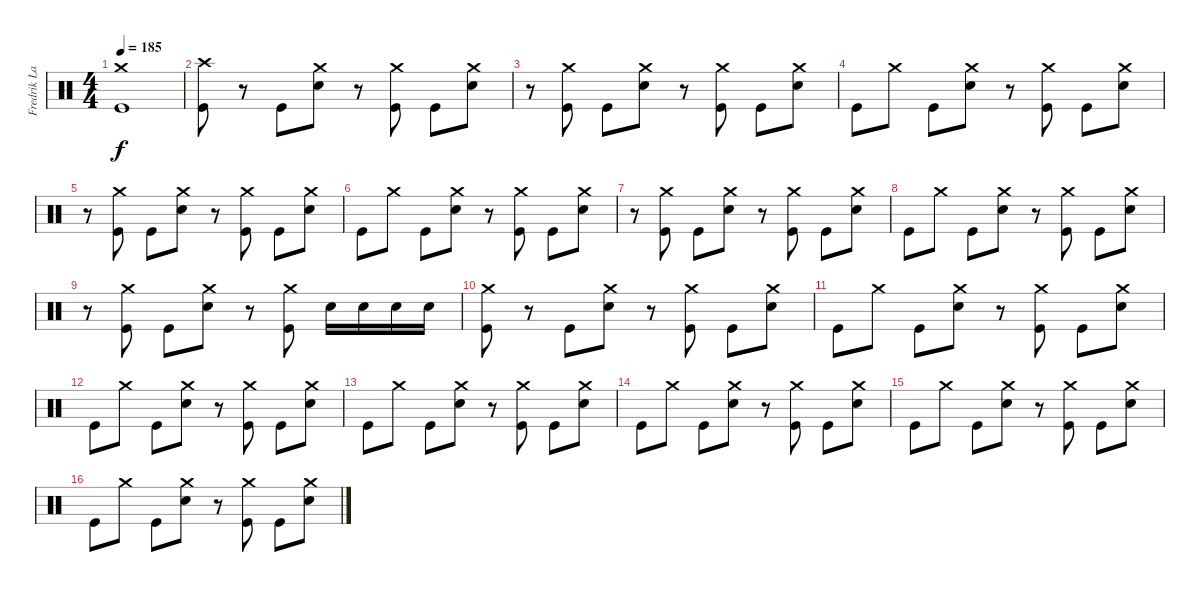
\track ("Fredrik Larzon" "Fredrik La") {instrument percussion}
\staff {score}
\articulation defaults
\ts (4 4)
\tempo 185
\clef neutral
\ks c
("Crash medium (hit)" "Kick (hit)").1{dy f} |
("Crash high (hit)" "Kick (hit)").8 r.8 "Kick (hit)".8 ("Crash medium (hit)" "Electric Snare (hit)").8 r.8 ("Crash medium (hit)" "Kick (hit)").8 "Kick (hit)".8 ("Crash medium (hit)" "Electric Snare (hit)").8 |
r.8 ("Crash medium (hit)" "Kick (hit)").8 "Kick (hit)".8 ("Crash medium (hit)" "Electric Snare (hit)").8 r.8 ("Crash medium (hit)" "Kick (hit)").8 "Kick (hit)".8 ("Crash medium (hit)" "Electric Snare (hit)").8 |
"Kick (hit)".8 "Crash medium (hit)".8 "Kick (hit)".8 ("Crash medium (hit)" "Electric Snare (hit)").8 r.8 ("Crash medium (hit)" "Kick (hit)").8 "Kick (hit)".8 ("Crash medium (hit)" "Electric Snare (hit)").8 |
r.8 ("Crash medium (hit)" "Kick (hit)").8 "Kick (hit)".8 ("Crash medium (hit)" "Electric Snare (hit)").8 r.8 ("Crash medium (hit)" "Kick (hit)").8 "Kick (hit)".8 ("Crash medium (hit)" "Electric Snare (hit)").8 |
"Kick (hit)".8 "Crash medium (hit)".8 "Kick (hit)".8 ("Crash medium (hit)" "Electric Snare (hit)").8 r.8 ("Crash medium (hit)" "Kick (hit)").8 "Kick (hit)".8 ("Crash medium (hit)" "Electric Snare (hit)").8 |
r.8 ("Crash medium (hit)" "Kick (hit)").8 "Kick (hit)".8 ("Crash medium (hit)" "Electric Snare (hit)").8 r.8 ("Crash medium (hit)" "Kick (hit)").8 "Kick (hit)".8 ("Crash medium (hit)" "Electric Snare (hit)").8 |
"Kick (hit)".8 "Crash medium (hit)".8 "Kick (hit)".8 ("Crash medium (hit)" "Electric Snare (hit)").8 r.8 ("Crash medium (hit)" "Kick (hit)").8 "Kick (hit)".8 ("Crash medium (hit)" "Electric Snare (hit)").8 |
r.8 ("Crash medium (hit)" "Kick (hit)").8 "Kick (hit)".8 ("Crash medium (hit)" "Electric Snare (hit)").8 r.8 ("Crash medium (hit)" "Kick (hit)").8 "Electric Snare (hit)".16 "Electric Snare (hit)".16 "Electric Snare (hit)".16 "Electric Snare (hit)".16 |
("Crash medium (hit)" "Kick (hit)").8 r.8 "Kick (hit)".8 ("Crash medium (hit)" "Electric Snare (hit)").8 r.8 ("Crash medium (hit)" "Kick (hit)").8 "Kick (hit)".8 ("Crash medium (hit)" "Electric Snare (hit)").8 |
"Kick (hit)".8 "Crash medium (hit)".8 "Kick (hit)".8 ("Crash medium (hit)" "Electric Snare (hit)").8 r.8 ("Crash medium (hit)" "Kick (hit)").8 "Kick (hit)".8 ("Crash medium (hit)" "Electric Snare (hit)").8 |
"Kick (hit)".8 "Crash medium (hit)".8 "Kick (hit)".8 ("Crash medium (hit)" "Electric Snare (hit)").8 r.8 ("Crash medium (hit)" "Kick (hit)").8 "Kick (hit)".8 ("Crash medium (hit)" "Electric Snare (hit)").8 |
"Kick (hit)".8 "Crash medium (hit)".8 "Kick (hit)".8 ("Crash medium (hit)" "Electric Snare (hit)").8 r.8 ("Crash medium (hit)" "Kick (hit)").8 "Kick (hit)".8 ("Crash medium (hit)" "Electric Snare (hit)").8 |
"Kick (hit)".8 "Crash medium (hit)".8 "Kick (hit)".8 ("Crash medium (hit)" "Electric Snare (hit)").8 r.8 ("Crash medium (hit)" "Kick (hit)").8 "Kick (hit)".8 ("Crash medium (hit)" "Electric Snare (hit)").8 |
"Kick (hit)".8 "Crash medium (hit)".8 "Kick (hit)".8 ("Crash medium (hit)" "Electric Snare (hit)").8 r.8 ("Crash medium (hit)" "Kick (hit)").8 "Kick (hit)".8 ("Crash medium (hit)" "Electric Snare (hit)").8 |
"Kick (hit)".8 "Crash medium (hit)".8 "Kick (hit)".8 ("Crash medium (hit)" "Electric Snare (hit)").8 r.8 ("Crash medium (hit)" "Kick (hit)").8 "Kick (hit)".8 ("Crash medium (hit)" "Electric Snare (hit)").8
